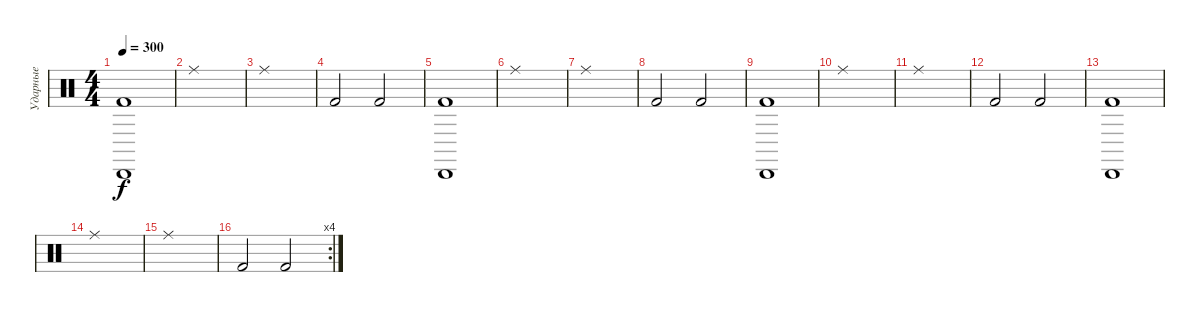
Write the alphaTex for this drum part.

\track ("Ударные" "Ударные") {instrument percussion}
\staff {score}
\articulation defaults
\ts (4 4)
\tempo 300
\tempo 470
\tempo 300
\clef neutral
\ks c
("Kick (hit) 2" "Cabasa (hit)").1{dy f} |
"Ride (middle)".1 |
"Ride (middle)".1 |
"Kick (hit) 2".2 "Kick (hit) 2".2 |
("Kick (hit) 2" "Cabasa (hit)").1 |
"Ride (middle)".1 |
"Ride (middle)".1 |
"Kick (hit) 2".2 "Kick (hit) 2".2 |
("Kick (hit) 2" "Cabasa (hit)").1 |
"Ride (middle)".1 |
"Ride (middle)".1 |
"Kick (hit) 2".2 "Kick (hit) 2".2 |
("Kick (hit) 2" "Cabasa (hit)").1 |
"Ride (middle)".1 |
"Ride (middle)".1 |
\rc 4 "Kick (hit) 2".2 "Kick (hit) 2".2
